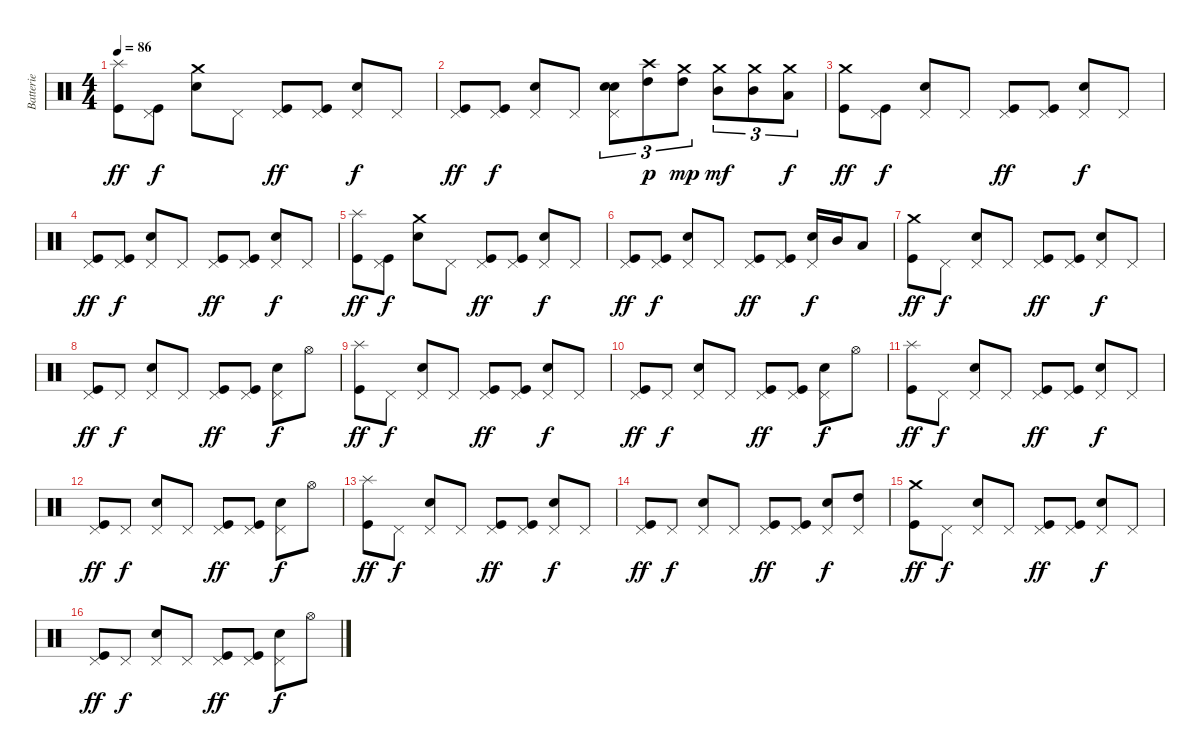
\track ("Batterie" "Batterie") {instrument percussion}
\staff {score}
\articulation defaults
\ts (4 4)
\tempo 86
\clef neutral
\ks c
("Splash (hit)" "Kick (hit)").8{dy ff} ("Pedal Hi-Hat (hit)" "Kick (hit)").8{dy f} ("Crash medium (hit)" "Electric Snare (hit)").8 "Pedal Hi-Hat (hit)".8 ("Pedal Hi-Hat (hit)" "Kick (hit)").8{dy ff} ("Pedal Hi-Hat (hit)" "Kick (hit)").8 ("Pedal Hi-Hat (hit)" "Electric Snare (hit)").8{dy f} "Pedal Hi-Hat (hit)".8 |
("Pedal Hi-Hat (hit)" "Kick (hit)").8{dy ff} ("Pedal Hi-Hat (hit)" "Kick (hit)").8{dy f} ("Pedal Hi-Hat (hit)" "Electric Snare (hit)").8 "Pedal Hi-Hat (hit)".8 ("Pedal Hi-Hat (hit)" "Electric Snare (hit)" "Electric Snare (hit)").8{tu (3 2) bu 120} ("Crash high (hit)" "High Tom (hit)").8{tu (3 2) dy p} ("Crash medium (hit)" "High Tom (hit)").8{tu (3 2) dy mp} ("Crash medium (hit)" "Mid Tom (hit)").8{tu (3 2) dy mf} ("Crash medium (hit)" "Mid Tom (hit)").8{tu (3 2)} ("Crash medium (hit)" "Low Tom (hit)").8{tu (3 2) dy f} |
("Crash medium (hit)" "Kick (hit)").8{dy ff} ("Pedal Hi-Hat (hit)" "Kick (hit)").8{dy f} ("Pedal Hi-Hat (hit)" "Electric Snare (hit)").8 "Pedal Hi-Hat (hit)".8 ("Pedal Hi-Hat (hit)" "Kick (hit)").8{dy ff} ("Pedal Hi-Hat (hit)" "Kick (hit)").8 ("Pedal Hi-Hat (hit)" "Electric Snare (hit)").8{dy f} "Pedal Hi-Hat (hit)".8 |
("Pedal Hi-Hat (hit)" "Kick (hit)").8{dy ff} ("Pedal Hi-Hat (hit)" "Kick (hit)").8{dy f} ("Pedal Hi-Hat (hit)" "Electric Snare (hit)").8 "Pedal Hi-Hat (hit)".8 ("Pedal Hi-Hat (hit)" "Kick (hit)").8{dy ff} ("Pedal Hi-Hat (hit)" "Kick (hit)").8 ("Pedal Hi-Hat (hit)" "Electric Snare (hit)").8{dy f} "Pedal Hi-Hat (hit)".8 |
("Splash (hit)" "Kick (hit)").8{dy ff} ("Pedal Hi-Hat (hit)" "Kick (hit)").8{dy f} ("Crash medium (hit)" "Electric Snare (hit)").8 "Pedal Hi-Hat (hit)".8 ("Pedal Hi-Hat (hit)" "Kick (hit)").8{dy ff} ("Pedal Hi-Hat (hit)" "Kick (hit)").8 ("Pedal Hi-Hat (hit)" "Electric Snare (hit)").8{dy f} "Pedal Hi-Hat (hit)".8 |
("Pedal Hi-Hat (hit)" "Kick (hit)").8{dy ff} ("Pedal Hi-Hat (hit)" "Kick (hit)").8{dy f} ("Pedal Hi-Hat (hit)" "Electric Snare (hit)").8 "Pedal Hi-Hat (hit)".8 ("Pedal Hi-Hat (hit)" "Kick (hit)").8{dy ff} ("Pedal Hi-Hat (hit)" "Kick (hit)").8 ("Pedal Hi-Hat (hit)" "Electric Snare (hit)").16{dy f} "Mid Tom (hit)".16 "Low Tom (hit)".8 |
("Crash medium (hit)" "Kick (hit)").8{dy ff} "Pedal Hi-Hat (hit)".8{dy f} ("Pedal Hi-Hat (hit)" "Electric Snare (hit)").8 "Pedal Hi-Hat (hit)".8 ("Pedal Hi-Hat (hit)" "Kick (hit)").8{dy ff} ("Pedal Hi-Hat (hit)" "Kick (hit)").8 ("Pedal Hi-Hat (hit)" "Electric Snare (hit)").8{dy f} "Pedal Hi-Hat (hit)".8 |
("Pedal Hi-Hat (hit)" "Kick (hit)").8{dy ff} "Pedal Hi-Hat (hit)".8{dy f} ("Pedal Hi-Hat (hit)" "Electric Snare (hit)").8 "Pedal Hi-Hat (hit)".8 ("Pedal Hi-Hat (hit)" "Kick (hit)").8{dy ff} ("Pedal Hi-Hat (hit)" "Kick (hit)").8 ("Pedal Hi-Hat (hit)" "Electric Snare (hit)").8{dy f} "Hi-Hat (open)".8 |
("Splash (hit)" "Kick (hit)").8{dy ff} "Pedal Hi-Hat (hit)".8{dy f} ("Pedal Hi-Hat (hit)" "Electric Snare (hit)").8 "Pedal Hi-Hat (hit)".8 ("Pedal Hi-Hat (hit)" "Kick (hit)").8{dy ff} ("Pedal Hi-Hat (hit)" "Kick (hit)").8 ("Pedal Hi-Hat (hit)" "Electric Snare (hit)").8{dy f} "Pedal Hi-Hat (hit)".8 |
("Pedal Hi-Hat (hit)" "Kick (hit)").8{dy ff} "Pedal Hi-Hat (hit)".8{dy f} ("Pedal Hi-Hat (hit)" "Electric Snare (hit)").8 "Pedal Hi-Hat (hit)".8 ("Pedal Hi-Hat (hit)" "Kick (hit)").8{dy ff} ("Pedal Hi-Hat (hit)" "Kick (hit)").8 ("Pedal Hi-Hat (hit)" "Electric Snare (hit)").8{dy f} "Hi-Hat (open)".8 |
("Splash (hit)" "Kick (hit)").8{dy ff} "Pedal Hi-Hat (hit)".8{dy f} ("Pedal Hi-Hat (hit)" "Electric Snare (hit)").8 "Pedal Hi-Hat (hit)".8 ("Pedal Hi-Hat (hit)" "Kick (hit)").8{dy ff} ("Pedal Hi-Hat (hit)" "Kick (hit)").8 ("Pedal Hi-Hat (hit)" "Electric Snare (hit)").8{dy f} "Pedal Hi-Hat (hit)".8 |
("Pedal Hi-Hat (hit)" "Kick (hit)").8{dy ff} "Pedal Hi-Hat (hit)".8{dy f} ("Pedal Hi-Hat (hit)" "Electric Snare (hit)").8 "Pedal Hi-Hat (hit)".8 ("Pedal Hi-Hat (hit)" "Kick (hit)").8{dy ff} ("Pedal Hi-Hat (hit)" "Kick (hit)").8 ("Pedal Hi-Hat (hit)" "Electric Snare (hit)").8{dy f} "Hi-Hat (open)".8 |
("Splash (hit)" "Kick (hit)").8{dy ff} "Pedal Hi-Hat (hit)".8{dy f} ("Pedal Hi-Hat (hit)" "Electric Snare (hit)").8 "Pedal Hi-Hat (hit)".8 ("Pedal Hi-Hat (hit)" "Kick (hit)").8{dy ff} ("Pedal Hi-Hat (hit)" "Kick (hit)").8 ("Pedal Hi-Hat (hit)" "Electric Snare (hit)").8{dy f} "Pedal Hi-Hat (hit)".8 |
("Pedal Hi-Hat (hit)" "Kick (hit)").8{dy ff} "Pedal Hi-Hat (hit)".8{dy f} ("Pedal Hi-Hat (hit)" "Electric Snare (hit)").8 "Pedal Hi-Hat (hit)".8 ("Pedal Hi-Hat (hit)" "Kick (hit)").8{dy ff} ("Pedal Hi-Hat (hit)" "Kick (hit)").8 ("Pedal Hi-Hat (hit)" "Electric Snare (hit)").8{dy f} ("Pedal Hi-Hat (hit)" "High Tom (hit)").8 |
("Crash medium (hit)" "Kick (hit)").8{dy ff} "Pedal Hi-Hat (hit)".8{dy f} ("Pedal Hi-Hat (hit)" "Electric Snare (hit)").8 "Pedal Hi-Hat (hit)".8 ("Pedal Hi-Hat (hit)" "Kick (hit)").8{dy ff} ("Pedal Hi-Hat (hit)" "Kick (hit)").8 ("Pedal Hi-Hat (hit)" "Electric Snare (hit)").8{dy f} "Pedal Hi-Hat (hit)".8 |
("Pedal Hi-Hat (hit)" "Kick (hit)").8{dy ff} "Pedal Hi-Hat (hit)".8{dy f} ("Pedal Hi-Hat (hit)" "Electric Snare (hit)").8 "Pedal Hi-Hat (hit)".8 ("Pedal Hi-Hat (hit)" "Kick (hit)").8{dy ff} ("Pedal Hi-Hat (hit)" "Kick (hit)").8 ("Pedal Hi-Hat (hit)" "Electric Snare (hit)").8{dy f} "Hi-Hat (open)".8
